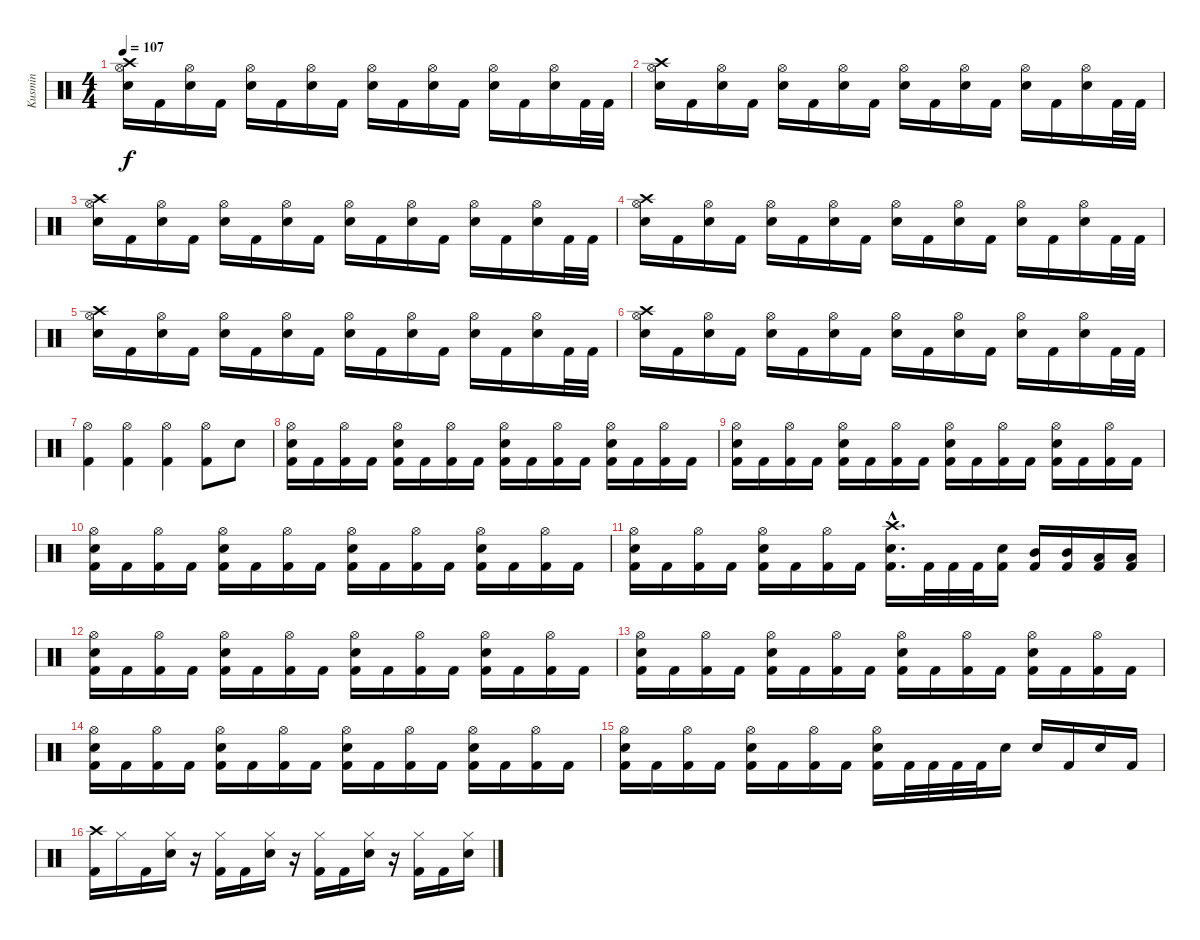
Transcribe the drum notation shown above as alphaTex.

\track ("Kusmin" "Kusmin") {instrument percussion}
\staff {score}
\articulation defaults
\ts (4 4)
\tempo 107
\clef neutral
\ks c
("Crash high (hit)" "Hi-Hat (open)" "Snare (hit) 2").16{dy f} "Kick (hit) 2".16 ("Hi-Hat (open)" "Snare (hit) 2").16 "Kick (hit) 2".16 ("Hi-Hat (open)" "Snare (hit) 2").16 "Kick (hit) 2".16 ("Hi-Hat (open)" "Snare (hit) 2").16 "Kick (hit) 2".16 ("Hi-Hat (open)" "Snare (hit) 2").16 "Kick (hit) 2".16 ("Hi-Hat (open)" "Snare (hit) 2").16 "Kick (hit) 2".16 ("Hi-Hat (open)" "Snare (hit) 2").16 "Kick (hit) 2".16 ("Hi-Hat (open)" "Snare (hit) 2").16 "Kick (hit) 2".32 "Kick (hit) 2".32 |
("Crash high (hit)" "Hi-Hat (open)" "Snare (hit) 2").16 "Kick (hit) 2".16 ("Hi-Hat (open)" "Snare (hit) 2").16 "Kick (hit) 2".16 ("Hi-Hat (open)" "Snare (hit) 2").16 "Kick (hit) 2".16 ("Hi-Hat (open)" "Snare (hit) 2").16 "Kick (hit) 2".16 ("Hi-Hat (open)" "Snare (hit) 2").16 "Kick (hit) 2".16 ("Hi-Hat (open)" "Snare (hit) 2").16 "Kick (hit) 2".16 ("Hi-Hat (open)" "Snare (hit) 2").16 "Kick (hit) 2".16 ("Hi-Hat (open)" "Snare (hit) 2").16 "Kick (hit) 2".32 "Kick (hit) 2".32 |
("Crash high (hit)" "Hi-Hat (open)" "Snare (hit) 2").16 "Kick (hit) 2".16 ("Hi-Hat (open)" "Snare (hit) 2").16 "Kick (hit) 2".16 ("Hi-Hat (open)" "Snare (hit) 2").16 "Kick (hit) 2".16 ("Hi-Hat (open)" "Snare (hit) 2").16 "Kick (hit) 2".16 ("Hi-Hat (open)" "Snare (hit) 2").16 "Kick (hit) 2".16 ("Hi-Hat (open)" "Snare (hit) 2").16 "Kick (hit) 2".16 ("Hi-Hat (open)" "Snare (hit) 2").16 "Kick (hit) 2".16 ("Hi-Hat (open)" "Snare (hit) 2").16 "Kick (hit) 2".32 "Kick (hit) 2".32 |
("Crash high (hit)" "Hi-Hat (open)" "Snare (hit) 2").16 "Kick (hit) 2".16 ("Hi-Hat (open)" "Snare (hit) 2").16 "Kick (hit) 2".16 ("Hi-Hat (open)" "Snare (hit) 2").16 "Kick (hit) 2".16 ("Hi-Hat (open)" "Snare (hit) 2").16 "Kick (hit) 2".16 ("Hi-Hat (open)" "Snare (hit) 2").16 "Kick (hit) 2".16 ("Hi-Hat (open)" "Snare (hit) 2").16 "Kick (hit) 2".16 ("Hi-Hat (open)" "Snare (hit) 2").16 "Kick (hit) 2".16 ("Hi-Hat (open)" "Snare (hit) 2").16 "Kick (hit) 2".32 "Kick (hit) 2".32 |
("Crash high (hit)" "Hi-Hat (open)" "Snare (hit) 2").16 "Kick (hit) 2".16 ("Hi-Hat (open)" "Snare (hit) 2").16 "Kick (hit) 2".16 ("Hi-Hat (open)" "Snare (hit) 2").16 "Kick (hit) 2".16 ("Hi-Hat (open)" "Snare (hit) 2").16 "Kick (hit) 2".16 ("Hi-Hat (open)" "Snare (hit) 2").16 "Kick (hit) 2".16 ("Hi-Hat (open)" "Snare (hit) 2").16 "Kick (hit) 2".16 ("Hi-Hat (open)" "Snare (hit) 2").16 "Kick (hit) 2".16 ("Hi-Hat (open)" "Snare (hit) 2").16 "Kick (hit) 2".32 "Kick (hit) 2".32 |
("Crash high (hit)" "Hi-Hat (open)" "Snare (hit) 2").16 "Kick (hit) 2".16 ("Hi-Hat (open)" "Snare (hit) 2").16 "Kick (hit) 2".16 ("Hi-Hat (open)" "Snare (hit) 2").16 "Kick (hit) 2".16 ("Hi-Hat (open)" "Snare (hit) 2").16 "Kick (hit) 2".16 ("Hi-Hat (open)" "Snare (hit) 2").16 "Kick (hit) 2".16 ("Hi-Hat (open)" "Snare (hit) 2").16 "Kick (hit) 2".16 ("Hi-Hat (open)" "Snare (hit) 2").16 "Kick (hit) 2".16 ("Hi-Hat (open)" "Snare (hit) 2").16 "Kick (hit) 2".32 "Kick (hit) 2".32 |
("Hi-Hat (open)" "Kick (hit) 2").4 ("Hi-Hat (open)" "Kick (hit) 2").4 ("Hi-Hat (open)" "Kick (hit) 2").4 ("Hi-Hat (open)" "Kick (hit) 2").8 "Snare (hit) 2".8 |
("Hi-Hat (open)" "Snare (hit) 2" "Kick (hit) 2").16 "Kick (hit) 2".16 ("Hi-Hat (open)" "Kick (hit) 2").16 "Kick (hit) 2".16 ("Hi-Hat (open)" "Snare (hit) 2" "Kick (hit) 2").16 "Kick (hit) 2".16 ("Hi-Hat (open)" "Kick (hit) 2").16 "Kick (hit) 2".16 ("Hi-Hat (open)" "Snare (hit) 2" "Kick (hit) 2").16 "Kick (hit) 2".16 ("Hi-Hat (open)" "Kick (hit) 2").16 "Kick (hit) 2".16 ("Hi-Hat (open)" "Snare (hit) 2" "Kick (hit) 2").16 "Kick (hit) 2".16 ("Hi-Hat (open)" "Kick (hit) 2").16 "Kick (hit) 2".16 |
("Hi-Hat (open)" "Snare (hit) 2" "Kick (hit) 2").16 "Kick (hit) 2".16 ("Hi-Hat (open)" "Kick (hit) 2").16 "Kick (hit) 2".16 ("Hi-Hat (open)" "Snare (hit) 2" "Kick (hit) 2").16 "Kick (hit) 2".16 ("Hi-Hat (open)" "Kick (hit) 2").16 "Kick (hit) 2".16 ("Hi-Hat (open)" "Snare (hit) 2" "Kick (hit) 2").16 "Kick (hit) 2".16 ("Hi-Hat (open)" "Kick (hit) 2").16 "Kick (hit) 2".16 ("Hi-Hat (open)" "Snare (hit) 2" "Kick (hit) 2").16 "Kick (hit) 2".16 ("Hi-Hat (open)" "Kick (hit) 2").16 "Kick (hit) 2".16 |
("Hi-Hat (open)" "Snare (hit) 2" "Kick (hit) 2").16 "Kick (hit) 2".16 ("Hi-Hat (open)" "Kick (hit) 2").16 "Kick (hit) 2".16 ("Hi-Hat (open)" "Snare (hit) 2" "Kick (hit) 2").16 "Kick (hit) 2".16 ("Hi-Hat (open)" "Kick (hit) 2").16 "Kick (hit) 2".16 ("Hi-Hat (open)" "Snare (hit) 2" "Kick (hit) 2").16 "Kick (hit) 2".16 ("Hi-Hat (open)" "Kick (hit) 2").16 "Kick (hit) 2".16 ("Hi-Hat (open)" "Snare (hit) 2" "Kick (hit) 2").16 "Kick (hit) 2".16 ("Hi-Hat (open)" "Kick (hit) 2").16 "Kick (hit) 2".16 |
("Hi-Hat (open)" "Snare (hit) 2" "Kick (hit) 2").16 "Kick (hit) 2".16 ("Hi-Hat (open)" "Kick (hit) 2").16 "Kick (hit) 2".16 ("Hi-Hat (open)" "Snare (hit) 2" "Kick (hit) 2").16 "Kick (hit) 2".16 ("Hi-Hat (open)" "Kick (hit) 2").16 "Kick (hit) 2".16 ("Crash high (hit)"{hac} "Snare (hit) 2"{hac} "Kick (hit) 2"{hac}).16{d} "Kick (hit) 2".32 "Kick (hit) 2".32 "Kick (hit) 2".32 ("Snare (hit) 2" "Kick (hit) 2").16 ("Mid Tom (hit)" "Kick (hit) 2").16 ("Mid Tom (hit)" "Kick (hit) 2").16 ("Low Tom (hit)" "Kick (hit) 2").16 ("Low Tom (hit)" "Kick (hit) 2").16 |
("Hi-Hat (open)" "Snare (hit) 2" "Kick (hit) 2").16 "Kick (hit) 2".16 ("Hi-Hat (open)" "Kick (hit) 2").16 "Kick (hit) 2".16 ("Hi-Hat (open)" "Snare (hit) 2" "Kick (hit) 2").16 "Kick (hit) 2".16 ("Hi-Hat (open)" "Kick (hit) 2").16 "Kick (hit) 2".16 ("Hi-Hat (open)" "Snare (hit) 2" "Kick (hit) 2").16 "Kick (hit) 2".16 ("Hi-Hat (open)" "Kick (hit) 2").16 "Kick (hit) 2".16 ("Hi-Hat (open)" "Snare (hit) 2" "Kick (hit) 2").16 "Kick (hit) 2".16 ("Hi-Hat (open)" "Kick (hit) 2").16 "Kick (hit) 2".16 |
("Hi-Hat (open)" "Snare (hit) 2" "Kick (hit) 2").16 "Kick (hit) 2".16 ("Hi-Hat (open)" "Kick (hit) 2").16 "Kick (hit) 2".16 ("Hi-Hat (open)" "Snare (hit) 2" "Kick (hit) 2").16 "Kick (hit) 2".16 ("Hi-Hat (open)" "Kick (hit) 2").16 "Kick (hit) 2".16 ("Hi-Hat (open)" "Snare (hit) 2" "Kick (hit) 2").16 "Kick (hit) 2".16 ("Hi-Hat (open)" "Kick (hit) 2").16 "Kick (hit) 2".16 ("Hi-Hat (open)" "Snare (hit) 2" "Kick (hit) 2").16 "Kick (hit) 2".16 ("Hi-Hat (open)" "Kick (hit) 2").16 "Kick (hit) 2".16 |
("Hi-Hat (open)" "Snare (hit) 2" "Kick (hit) 2").16 "Kick (hit) 2".16 ("Hi-Hat (open)" "Kick (hit) 2").16 "Kick (hit) 2".16 ("Hi-Hat (open)" "Snare (hit) 2" "Kick (hit) 2").16 "Kick (hit) 2".16 ("Hi-Hat (open)" "Kick (hit) 2").16 "Kick (hit) 2".16 ("Hi-Hat (open)" "Snare (hit) 2" "Kick (hit) 2").16 "Kick (hit) 2".16 ("Hi-Hat (open)" "Kick (hit) 2").16 "Kick (hit) 2".16 ("Hi-Hat (open)" "Snare (hit) 2" "Kick (hit) 2").16 "Kick (hit) 2".16 ("Hi-Hat (open)" "Kick (hit) 2").16 "Kick (hit) 2".16 |
("Hi-Hat (open)" "Snare (hit) 2" "Kick (hit) 2").16 "Kick (hit) 2".16 ("Hi-Hat (open)" "Kick (hit) 2").16 "Kick (hit) 2".16 ("Hi-Hat (open)" "Snare (hit) 2" "Kick (hit) 2").16 "Kick (hit) 2".16 ("Hi-Hat (open)" "Kick (hit) 2").16 "Kick (hit) 2".16 ("Hi-Hat (open)" "Snare (hit) 2" "Kick (hit) 2").16 "Kick (hit) 2".32 "Kick (hit) 2".32 "Kick (hit) 2".32 "Kick (hit) 2".32 "Snare (hit) 2".16 "Snare (hit) 2".16 "Kick (hit) 2".16 "Snare (hit) 2".16 "Kick (hit) 2".16 |
("Crash high (hit)" "Kick (hit) 2").16 "Hi-Hat (closed)".16 "Kick (hit) 2".16 ("Hi-Hat (closed)" "Snare (hit) 2").16 r.16 ("Hi-Hat (closed)" "Kick (hit) 2").16 "Kick (hit) 2".16 ("Hi-Hat (closed)" "Snare (hit) 2").16 r.16 ("Hi-Hat (closed)" "Kick (hit) 2").16 "Kick (hit) 2".16 ("Hi-Hat (closed)" "Snare (hit) 2").16 r.16 ("Hi-Hat (closed)" "Kick (hit) 2").16 "Kick (hit) 2".16 ("Hi-Hat (closed)" "Snare (hit) 2").16
